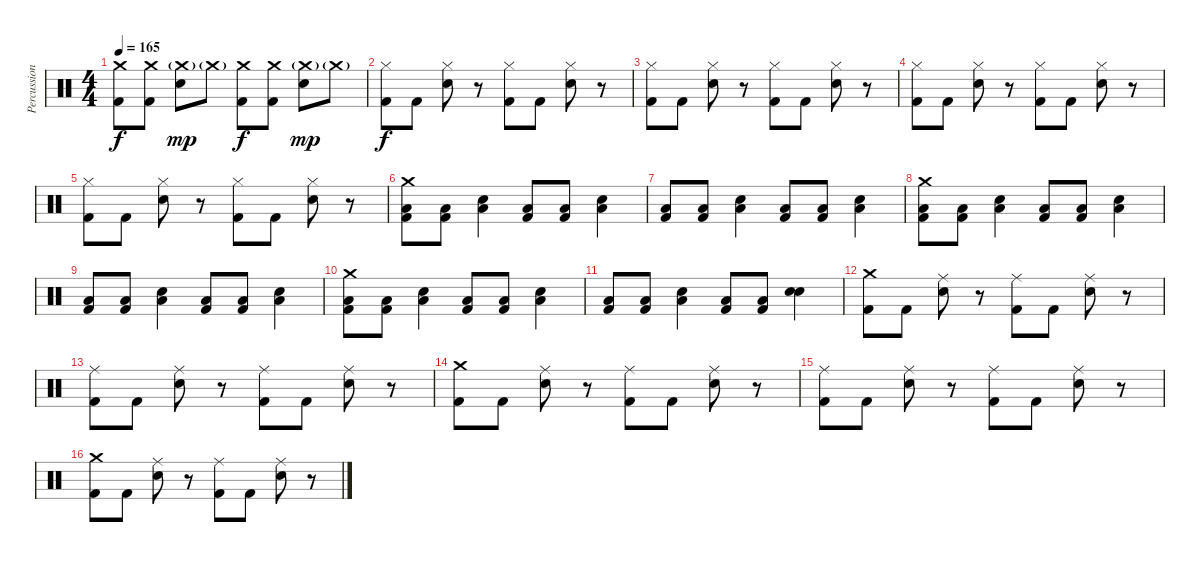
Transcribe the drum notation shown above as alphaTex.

\track ("Percussion" "Percussion") {instrument percussion}
\staff {score}
\articulation defaults
\ts (4 4)
\tempo 165
\clef neutral
\ks c
("Crash medium (hit)" "Kick (hit) 2").8{dy f} ("Crash medium (hit)" "Kick (hit) 2").8 ("Crash medium (hit)"{g} "Electric Snare (hit)").8{dy mp} "Crash medium (hit)"{g}.8 ("Crash medium (hit)" "Kick (hit) 2").8{dy f} ("Crash medium (hit)" "Kick (hit) 2").8 ("Crash medium (hit)"{g} "Electric Snare (hit)").8{dy mp} "Crash medium (hit)"{g}.8 |
("Hi-Hat (closed)" "Kick (hit) 2").8{dy f} "Kick (hit) 2".8 ("Hi-Hat (closed)" "Electric Snare (hit)").8 r.8 ("Hi-Hat (closed)" "Kick (hit) 2").8 "Kick (hit) 2".8 ("Hi-Hat (closed)" "Electric Snare (hit)").8 r.8 |
("Hi-Hat (closed)" "Kick (hit) 2").8 "Kick (hit) 2".8 ("Hi-Hat (closed)" "Electric Snare (hit)").8 r.8 ("Hi-Hat (closed)" "Kick (hit) 2").8 "Kick (hit) 2".8 ("Hi-Hat (closed)" "Electric Snare (hit)").8 r.8 |
("Hi-Hat (closed)" "Kick (hit) 2").8 "Kick (hit) 2".8 ("Hi-Hat (closed)" "Electric Snare (hit)").8 r.8 ("Hi-Hat (closed)" "Kick (hit) 2").8 "Kick (hit) 2".8 ("Hi-Hat (closed)" "Electric Snare (hit)").8 r.8 |
("Hi-Hat (closed)" "Kick (hit) 2").8 "Kick (hit) 2".8 ("Hi-Hat (closed)" "Electric Snare (hit)").8 r.8 ("Hi-Hat (closed)" "Kick (hit) 2").8 "Kick (hit) 2".8 ("Hi-Hat (closed)" "Electric Snare (hit)").8 r.8 |
("Crash medium (hit)" "Low Floor Tom (hit)" "Kick (hit) 2").8 ("Low Floor Tom (hit)" "Kick (hit) 2").8 ("Low Floor Tom (hit)" "Electric Snare (hit)").4 ("Low Floor Tom (hit)" "Kick (hit) 2").8 ("Low Floor Tom (hit)" "Kick (hit) 2").8 ("Low Floor Tom (hit)" "Electric Snare (hit)").4 |
("Low Floor Tom (hit)" "Kick (hit) 2").8 ("Low Floor Tom (hit)" "Kick (hit) 2").8 ("Low Floor Tom (hit)" "Electric Snare (hit)").4 ("Low Floor Tom (hit)" "Kick (hit) 2").8 ("Low Floor Tom (hit)" "Kick (hit) 2").8 ("Low Floor Tom (hit)" "Electric Snare (hit)").4 |
("Crash medium (hit)" "Low Floor Tom (hit)" "Kick (hit) 2").8 ("Low Floor Tom (hit)" "Kick (hit) 2").8 ("Low Floor Tom (hit)" "Electric Snare (hit)").4 ("Low Floor Tom (hit)" "Kick (hit) 2").8 ("Low Floor Tom (hit)" "Kick (hit) 2").8 ("Low Floor Tom (hit)" "Electric Snare (hit)").4 |
("Low Floor Tom (hit)" "Kick (hit) 2").8 ("Low Floor Tom (hit)" "Kick (hit) 2").8 ("Low Floor Tom (hit)" "Electric Snare (hit)").4 ("Low Floor Tom (hit)" "Kick (hit) 2").8 ("Low Floor Tom (hit)" "Kick (hit) 2").8 ("Low Floor Tom (hit)" "Electric Snare (hit)").4 |
("Crash medium (hit)" "Low Floor Tom (hit)" "Kick (hit) 2").8 ("Low Floor Tom (hit)" "Kick (hit) 2").8 ("Low Floor Tom (hit)" "Electric Snare (hit)").4 ("Low Floor Tom (hit)" "Kick (hit) 2").8 ("Low Floor Tom (hit)" "Kick (hit) 2").8 ("Low Floor Tom (hit)" "Electric Snare (hit)").4 |
("Low Floor Tom (hit)" "Kick (hit) 2").8 ("Low Floor Tom (hit)" "Kick (hit) 2").8 ("Low Floor Tom (hit)" "Electric Snare (hit)").4 ("Low Floor Tom (hit)" "Kick (hit) 2").8 ("Low Floor Tom (hit)" "Kick (hit) 2").8 ("Electric Snare (hit)" "Electric Snare (hit)").4{bu 240} |
("Crash medium (hit)" "Kick (hit) 2").8 "Kick (hit) 2".8 ("Ride (middle)" "Electric Snare (hit)").8 r.8 ("Ride (middle)" "Kick (hit) 2").8 "Kick (hit) 2".8 ("Ride (middle)" "Electric Snare (hit)").8 r.8 |
("Ride (middle)" "Kick (hit) 2").8 "Kick (hit) 2".8 ("Ride (middle)" "Electric Snare (hit)").8 r.8 ("Ride (middle)" "Kick (hit) 2").8 "Kick (hit) 2".8 ("Ride (middle)" "Electric Snare (hit)").8 r.8 |
("Crash medium (hit)" "Kick (hit) 2").8 "Kick (hit) 2".8 ("Ride (middle)" "Electric Snare (hit)").8 r.8 ("Ride (middle)" "Kick (hit) 2").8 "Kick (hit) 2".8 ("Ride (middle)" "Electric Snare (hit)").8 r.8 |
("Ride (middle)" "Kick (hit) 2").8 "Kick (hit) 2".8 ("Ride (middle)" "Electric Snare (hit)").8 r.8 ("Ride (middle)" "Kick (hit) 2").8 "Kick (hit) 2".8 ("Ride (middle)" "Electric Snare (hit)").8 r.8 |
("Crash medium (hit)" "Kick (hit) 2").8 "Kick (hit) 2".8 ("Ride (middle)" "Electric Snare (hit)").8 r.8 ("Ride (middle)" "Kick (hit) 2").8 "Kick (hit) 2".8 ("Ride (middle)" "Electric Snare (hit)").8 r.8
